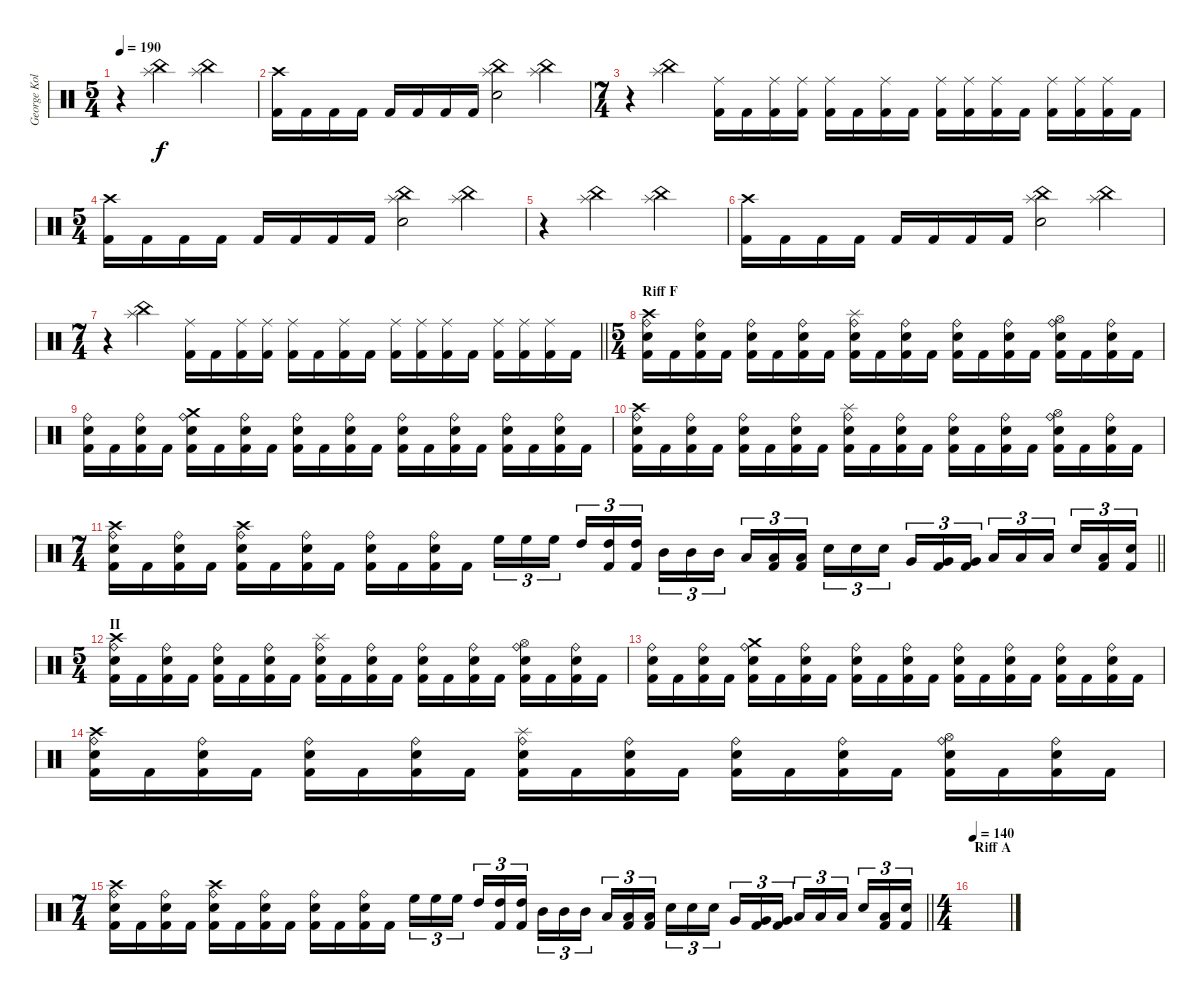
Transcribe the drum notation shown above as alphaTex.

\track ("George Kollias [Equill]" "George Kol") {instrument percussion}
\staff {score}
\articulation defaults
\ts (5 4)
\tempo 190
\clef neutral
\ks c
r.4{dy f} ("China (hit)" "Splash (hit)").2 ("China (hit)" "Splash (hit)").2 |
("Crash high (hit)" "Kick (hit) 2").16 "Kick (hit) 2".16 "Kick (hit) 2".16 "Kick (hit) 2".16 "Kick (hit) 2".16 "Kick (hit) 2".16 "Kick (hit) 2".16 "Kick (hit) 2".16 ("China (hit)" "Splash (hit)" "Electric Snare (hit)").2 ("China (hit)" "Splash (hit)").4 |
\ts (7 4)
r.4 ("China (hit)" "Splash (hit)").2 ("Ride (middle)" "Kick (hit) 2").16 "Kick (hit) 2".16 ("Ride (middle)" "Kick (hit) 2").16 ("Ride (middle)" "Kick (hit) 2").16 ("Ride (middle)" "Kick (hit) 2").16 "Kick (hit) 2".16 ("Ride (middle)" "Kick (hit) 2").16 "Kick (hit) 2".16 ("Ride (middle)" "Kick (hit) 2").16 ("Ride (middle)" "Kick (hit) 2").16 ("Ride (middle)" "Kick (hit) 2").16 "Kick (hit) 2".16 ("Ride (middle)" "Kick (hit) 2").16 ("Ride (middle)" "Kick (hit) 2").16 ("Ride (middle)" "Kick (hit) 2").16 "Kick (hit) 2".16 |
\ts (5 4)
("Crash high (hit)" "Kick (hit) 2").16 "Kick (hit) 2".16 "Kick (hit) 2".16 "Kick (hit) 2".16 "Kick (hit) 2".16 "Kick (hit) 2".16 "Kick (hit) 2".16 "Kick (hit) 2".16 ("China (hit)" "Splash (hit)" "Electric Snare (hit)").2 ("China (hit)" "Splash (hit)").4 |
r.4 ("China (hit)" "Splash (hit)").2 ("China (hit)" "Splash (hit)").2 |
("Crash high (hit)" "Kick (hit) 2").16 "Kick (hit) 2".16 "Kick (hit) 2".16 "Kick (hit) 2".16 "Kick (hit) 2".16 "Kick (hit) 2".16 "Kick (hit) 2".16 "Kick (hit) 2".16 ("China (hit)" "Splash (hit)" "Electric Snare (hit)").2 ("China (hit)" "Splash (hit)").4 |
\ts (7 4)
\barLineRight lightlight
r.4 ("China (hit)" "Splash (hit)").2 ("Ride (middle)" "Kick (hit) 2").16 "Kick (hit) 2".16 ("Ride (middle)" "Kick (hit) 2").16 ("Ride (middle)" "Kick (hit) 2").16 ("Ride (middle)" "Kick (hit) 2").16 "Kick (hit) 2".16 ("Ride (middle)" "Kick (hit) 2").16 "Kick (hit) 2".16 ("Ride (middle)" "Kick (hit) 2").16 ("Ride (middle)" "Kick (hit) 2").16 ("Ride (middle)" "Kick (hit) 2").16 "Kick (hit) 2".16 ("Ride (middle)" "Kick (hit) 2").16 ("Ride (middle)" "Kick (hit) 2").16 ("Ride (middle)" "Kick (hit) 2").16 "Kick (hit) 2".16 |
\ts (5 4)
\section ("" "Riff F")
("Crash high (hit)" "Ride (bell)" "Electric Snare (hit)" "Kick (hit) 2").16 "Kick (hit) 2".16 ("Ride (bell)" "Electric Snare (hit)" "Kick (hit) 2").16 "Kick (hit) 2".16 ("Ride (bell)" "Electric Snare (hit)" "Kick (hit) 2").16 "Kick (hit) 2".16 ("Ride (bell)" "Electric Snare (hit)" "Kick (hit) 2").16 "Kick (hit) 2".16 ("Splash (hit)" "Ride (bell)" "Electric Snare (hit)" "Kick (hit) 2").16 "Kick (hit) 2".16 ("Ride (bell)" "Electric Snare (hit)" "Kick (hit) 2").16 "Kick (hit) 2".16 ("Ride (bell)" "Electric Snare (hit)" "Kick (hit) 2").16 "Kick (hit) 2".16 ("Ride (bell)" "Electric Snare (hit)" "Kick (hit) 2").16 "Kick (hit) 2".16 ("Hi-Hat (open)" "Ride (bell)" "Electric Snare (hit)" "Kick (hit) 2").16 "Kick (hit) 2".16 ("Ride (bell)" "Electric Snare (hit)" "Kick (hit) 2").16 "Kick (hit) 2".16 |
("Ride (bell)" "Electric Snare (hit)" "Kick (hit) 2").16 "Kick (hit) 2".16 ("Ride (bell)" "Electric Snare (hit)" "Kick (hit) 2").16 "Kick (hit) 2".16 ("Crash medium (hit)" "Ride (bell)" "Electric Snare (hit)" "Kick (hit) 2").16 "Kick (hit) 2".16 ("Ride (bell)" "Electric Snare (hit)" "Kick (hit) 2").16 "Kick (hit) 2".16 ("Ride (bell)" "Electric Snare (hit)" "Kick (hit) 2").16 "Kick (hit) 2".16 ("Ride (bell)" "Electric Snare (hit)" "Kick (hit) 2").16 "Kick (hit) 2".16 ("Ride (bell)" "Electric Snare (hit)" "Kick (hit) 2").16 "Kick (hit) 2".16 ("Ride (bell)" "Electric Snare (hit)" "Kick (hit) 2").16 "Kick (hit) 2".16 ("Ride (bell)" "Electric Snare (hit)" "Kick (hit) 2").16 "Kick (hit) 2".16 ("Ride (bell)" "Electric Snare (hit)" "Kick (hit) 2").16 "Kick (hit) 2".16 |
("Crash high (hit)" "Ride (bell)" "Electric Snare (hit)" "Kick (hit) 2").16 "Kick (hit) 2".16 ("Ride (bell)" "Electric Snare (hit)" "Kick (hit) 2").16 "Kick (hit) 2".16 ("Ride (bell)" "Electric Snare (hit)" "Kick (hit) 2").16 "Kick (hit) 2".16 ("Ride (bell)" "Electric Snare (hit)" "Kick (hit) 2").16 "Kick (hit) 2".16 ("Splash (hit)" "Ride (bell)" "Electric Snare (hit)" "Kick (hit) 2").16 "Kick (hit) 2".16 ("Ride (bell)" "Electric Snare (hit)" "Kick (hit) 2").16 "Kick (hit) 2".16 ("Ride (bell)" "Electric Snare (hit)" "Kick (hit) 2").16 "Kick (hit) 2".16 ("Ride (bell)" "Electric Snare (hit)" "Kick (hit) 2").16 "Kick (hit) 2".16 ("Hi-Hat (open)" "Ride (bell)" "Electric Snare (hit)" "Kick (hit) 2").16 "Kick (hit) 2".16 ("Ride (bell)" "Electric Snare (hit)" "Kick (hit) 2").16 "Kick (hit) 2".16 |
\ts (7 4)
\barLineRight lightlight
("Crash high (hit)" "Ride (bell)" "Electric Snare (hit)" "Kick (hit) 2").16 "Kick (hit) 2".16 ("Ride (bell)" "Electric Snare (hit)" "Kick (hit) 2").16 "Kick (hit) 2".16 ("Crash high (hit)" "Ride (bell)" "Electric Snare (hit)" "Kick (hit) 2").16 "Kick (hit) 2".16 ("Ride (bell)" "Electric Snare (hit)" "Kick (hit) 2").16 "Kick (hit) 2".16 ("Ride (bell)" "Electric Snare (hit)" "Kick (hit) 2").16 "Kick (hit) 2".16 ("Ride (bell)" "Electric Snare (hit)" "Kick (hit) 2").16 "Kick (hit) 2".16 "High Floor Tom (hit)".16{tu (3 2)} "High Floor Tom (hit)".16{tu (3 2)} "High Floor Tom (hit)".16{tu (3 2) beam splitsecondary} "High Tom (hit)".16{tu (3 2)} ("High Tom (hit)" "Kick (hit) 2").16{tu (3 2)} ("High Tom (hit)" "Kick (hit) 2").16{tu (3 2)} "Mid Tom (hit)".16{tu (3 2)} "Mid Tom (hit)".16{tu (3 2)} "Mid Tom (hit)".16{tu (3 2) beam splitsecondary} "Low Tom (hit)".16{tu (3 2)} ("Low Tom (hit)" "Kick (hit) 2").16{tu (3 2)} ("Low Tom (hit)" "Kick (hit) 2").16{tu (3 2)} "Electric Snare (hit)".16{tu (3 2)} "Electric Snare (hit)".16{tu (3 2)} "Electric Snare (hit)".16{tu (3 2) beam splitsecondary} "Very Low Tom (hit)".16{tu (3 2)} ("Very Low Tom (hit)" "Kick (hit) 2").16{tu (3 2)} ("Very Low Tom (hit)" "Kick (hit) 2").16{tu (3 2)} "Low Tom (hit)".16{tu (3 2)} "Low Tom (hit)".16{tu (3 2)} "Low Tom (hit)".16{tu (3 2) beam splitsecondary} "Electric Snare (hit)".16{tu (3 2)} ("Low Tom (hit)" "Kick (hit) 2").16{tu (3 2)} ("Electric Snare (hit)" "Kick (hit) 2").16{tu (3 2)} |
\ts (5 4)
\section ("" "II")
("Crash high (hit)" "Ride (bell)" "Electric Snare (hit)" "Kick (hit) 2").16 "Kick (hit) 2".16 ("Ride (bell)" "Electric Snare (hit)" "Kick (hit) 2").16 "Kick (hit) 2".16 ("Ride (bell)" "Electric Snare (hit)" "Kick (hit) 2").16 "Kick (hit) 2".16 ("Ride (bell)" "Electric Snare (hit)" "Kick (hit) 2").16 "Kick (hit) 2".16 ("Splash (hit)" "Ride (bell)" "Electric Snare (hit)" "Kick (hit) 2").16 "Kick (hit) 2".16 ("Ride (bell)" "Electric Snare (hit)" "Kick (hit) 2").16 "Kick (hit) 2".16 ("Ride (bell)" "Electric Snare (hit)" "Kick (hit) 2").16 "Kick (hit) 2".16 ("Ride (bell)" "Electric Snare (hit)" "Kick (hit) 2").16 "Kick (hit) 2".16 ("Hi-Hat (open)" "Ride (bell)" "Electric Snare (hit)" "Kick (hit) 2").16 "Kick (hit) 2".16 ("Ride (bell)" "Electric Snare (hit)" "Kick (hit) 2").16 "Kick (hit) 2".16 |
("Ride (bell)" "Electric Snare (hit)" "Kick (hit) 2").16 "Kick (hit) 2".16 ("Ride (bell)" "Electric Snare (hit)" "Kick (hit) 2").16 "Kick (hit) 2".16 ("Crash medium (hit)" "Ride (bell)" "Electric Snare (hit)" "Kick (hit) 2").16 "Kick (hit) 2".16 ("Ride (bell)" "Electric Snare (hit)" "Kick (hit) 2").16 "Kick (hit) 2".16 ("Ride (bell)" "Electric Snare (hit)" "Kick (hit) 2").16 "Kick (hit) 2".16 ("Ride (bell)" "Electric Snare (hit)" "Kick (hit) 2").16 "Kick (hit) 2".16 ("Ride (bell)" "Electric Snare (hit)" "Kick (hit) 2").16 "Kick (hit) 2".16 ("Ride (bell)" "Electric Snare (hit)" "Kick (hit) 2").16 "Kick (hit) 2".16 ("Ride (bell)" "Electric Snare (hit)" "Kick (hit) 2").16 "Kick (hit) 2".16 ("Ride (bell)" "Electric Snare (hit)" "Kick (hit) 2").16 "Kick (hit) 2".16 |
("Crash high (hit)" "Ride (bell)" "Electric Snare (hit)" "Kick (hit) 2").16 "Kick (hit) 2".16 ("Ride (bell)" "Electric Snare (hit)" "Kick (hit) 2").16 "Kick (hit) 2".16 ("Ride (bell)" "Electric Snare (hit)" "Kick (hit) 2").16 "Kick (hit) 2".16 ("Ride (bell)" "Electric Snare (hit)" "Kick (hit) 2").16 "Kick (hit) 2".16 ("Splash (hit)" "Ride (bell)" "Electric Snare (hit)" "Kick (hit) 2").16 "Kick (hit) 2".16 ("Ride (bell)" "Electric Snare (hit)" "Kick (hit) 2").16 "Kick (hit) 2".16 ("Ride (bell)" "Electric Snare (hit)" "Kick (hit) 2").16 "Kick (hit) 2".16 ("Ride (bell)" "Electric Snare (hit)" "Kick (hit) 2").16 "Kick (hit) 2".16 ("Hi-Hat (open)" "Ride (bell)" "Electric Snare (hit)" "Kick (hit) 2").16 "Kick (hit) 2".16 ("Ride (bell)" "Electric Snare (hit)" "Kick (hit) 2").16 "Kick (hit) 2".16 |
\ts (7 4)
\barLineRight lightlight
("Crash high (hit)" "Ride (bell)" "Electric Snare (hit)" "Kick (hit) 2").16 "Kick (hit) 2".16 ("Ride (bell)" "Electric Snare (hit)" "Kick (hit) 2").16 "Kick (hit) 2".16 ("Crash high (hit)" "Ride (bell)" "Electric Snare (hit)" "Kick (hit) 2").16 "Kick (hit) 2".16 ("Ride (bell)" "Electric Snare (hit)" "Kick (hit) 2").16 "Kick (hit) 2".16 ("Ride (bell)" "Electric Snare (hit)" "Kick (hit) 2").16 "Kick (hit) 2".16 ("Ride (bell)" "Electric Snare (hit)" "Kick (hit) 2").16 "Kick (hit) 2".16 "High Floor Tom (hit)".16{tu (3 2)} "High Floor Tom (hit)".16{tu (3 2)} "High Floor Tom (hit)".16{tu (3 2) beam splitsecondary} "High Tom (hit)".16{tu (3 2)} ("High Tom (hit)" "Kick (hit) 2").16{tu (3 2)} ("High Tom (hit)" "Kick (hit) 2").16{tu (3 2)} "Mid Tom (hit)".16{tu (3 2)} "Mid Tom (hit)".16{tu (3 2)} "Mid Tom (hit)".16{tu (3 2) beam splitsecondary} "Low Tom (hit)".16{tu (3 2)} ("Low Tom (hit)" "Kick (hit) 2").16{tu (3 2)} ("Low Tom (hit)" "Kick (hit) 2").16{tu (3 2)} "Electric Snare (hit)".16{tu (3 2)} "Electric Snare (hit)".16{tu (3 2)} "Electric Snare (hit)".16{tu (3 2) beam splitsecondary} "Very Low Tom (hit)".16{tu (3 2)} ("Very Low Tom (hit)" "Kick (hit) 2").16{tu (3 2)} ("Very Low Tom (hit)" "Kick (hit) 2").16{tu (3 2)} "Low Tom (hit)".16{tu (3 2)} "Low Tom (hit)".16{tu (3 2)} "Low Tom (hit)".16{tu (3 2) beam splitsecondary} "Electric Snare (hit)".16{tu (3 2)} ("Low Tom (hit)" "Kick (hit) 2").16{tu (3 2)} ("Electric Snare (hit)" "Kick (hit) 2").16{tu (3 2)} |
\ts (4 4)
\section ("" "Riff A")
\tempo 140
